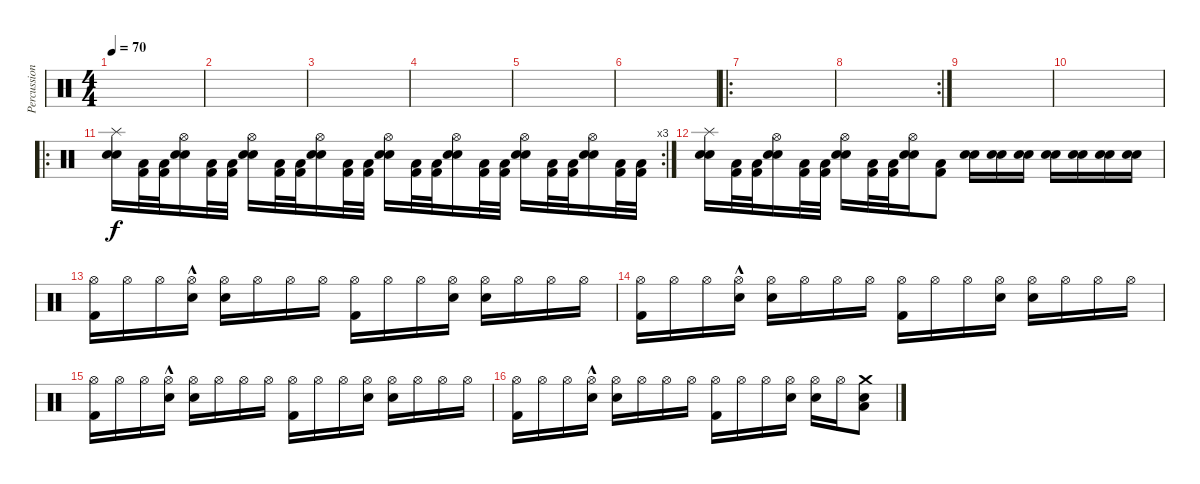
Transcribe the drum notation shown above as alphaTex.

\track ("Percussions" "Percussion") {instrument percussion}
\staff {score}
\articulation defaults
\ts (4 4)
\tempo 70
\clef neutral
\ks c
|
|
|
|
|
|
\ro
|
\rc 2
|
|
|
\ro
\rc 3
("Splash (hit)" "Electric Snare (hit)" "Snare (hit) 2").16 ("Kick (hit) 2" "Low Floor Tom (hit)").32 ("Low Floor Tom (hit)" "Kick (hit) 2").32 ("Electric Snare (hit)" "Snare (hit) 2" "Hi-Hat (open)").16 ("Kick (hit) 2" "Low Floor Tom (hit)").32 ("Kick (hit) 2" "Low Floor Tom (hit)").32 ("Electric Snare (hit)" "Snare (hit) 2" "Hi-Hat (open)").16 ("Kick (hit) 2" "Low Floor Tom (hit)").32 ("Kick (hit) 2" "Low Floor Tom (hit)").32 ("Electric Snare (hit)" "Snare (hit) 2" "Hi-Hat (open)").16 ("Kick (hit) 2" "Low Floor Tom (hit)").32 ("Kick (hit) 2" "Low Floor Tom (hit)").32 ("Electric Snare (hit)" "Snare (hit) 2" "Hi-Hat (open)").16 ("Kick (hit) 2" "Low Floor Tom (hit)").32 ("Kick (hit) 2" "Low Floor Tom (hit)").32 ("Electric Snare (hit)" "Snare (hit) 2" "Hi-Hat (open)").16 ("Kick (hit) 2" "Low Floor Tom (hit)").32 ("Kick (hit) 2" "Low Floor Tom (hit)").32 ("Electric Snare (hit)" "Snare (hit) 2" "Hi-Hat (open)").16 ("Kick (hit) 2" "Low Floor Tom (hit)").32 ("Kick (hit) 2" "Low Floor Tom (hit)").32 ("Electric Snare (hit)" "Snare (hit) 2" "Hi-Hat (open)").16 ("Kick (hit) 2" "Low Floor Tom (hit)").32 ("Kick (hit) 2" "Low Floor Tom (hit)").32 |
("Splash (hit)" "Electric Snare (hit)" "Snare (hit) 2").16 ("Kick (hit) 2" "Low Floor Tom (hit)").32 ("Low Floor Tom (hit)" "Kick (hit) 2").32 ("Electric Snare (hit)" "Snare (hit) 2" "Hi-Hat (open)").16 ("Kick (hit) 2" "Low Floor Tom (hit)").32 ("Kick (hit) 2" "Low Floor Tom (hit)").32 ("Electric Snare (hit)" "Snare (hit) 2" "Hi-Hat (open)").16 ("Kick (hit) 2" "Low Floor Tom (hit)").32 ("Kick (hit) 2" "Low Floor Tom (hit)").32 ("Electric Snare (hit)" "Snare (hit) 2" "Hi-Hat (open)").16 ("Kick (hit) 2" "Low Floor Tom (hit)").8 ("Electric Snare (hit)" "Snare (hit) 2").16 ("Electric Snare (hit)" "Snare (hit) 2").16 ("Electric Snare (hit)" "Snare (hit) 2").16 ("Electric Snare (hit)" "Snare (hit) 2").16 ("Electric Snare (hit)" "Snare (hit) 2").16 ("Electric Snare (hit)" "Snare (hit) 2").16 ("Electric Snare (hit)" "Snare (hit) 2").16 |
("Kick (hit) 2" "Hi-Hat (open)").16 "Hi-Hat (open)".16 "Hi-Hat (open)".16 ("Snare (hit) 2" "Hi-Hat (open)"{hac}).16 ("Snare (hit) 2" "Hi-Hat (open)").16 "Hi-Hat (open)".16 "Hi-Hat (open)".16 "Hi-Hat (open)".16 ("Kick (hit) 2" "Hi-Hat (open)").16 "Hi-Hat (open)".16 "Hi-Hat (open)".16 ("Snare (hit) 2" "Hi-Hat (open)").16 ("Snare (hit) 2" "Hi-Hat (open)").16 "Hi-Hat (open)".16 "Hi-Hat (open)".16 "Hi-Hat (open)".16 |
("Kick (hit) 2" "Hi-Hat (open)").16 "Hi-Hat (open)".16 "Hi-Hat (open)".16 ("Snare (hit) 2" "Hi-Hat (open)"{hac}).16 ("Snare (hit) 2" "Hi-Hat (open)").16 "Hi-Hat (open)".16 "Hi-Hat (open)".16 "Hi-Hat (open)".16 ("Kick (hit) 2" "Hi-Hat (open)").16 "Hi-Hat (open)".16 "Hi-Hat (open)".16 ("Snare (hit) 2" "Hi-Hat (open)").16 ("Snare (hit) 2" "Hi-Hat (open)").16 "Hi-Hat (open)".16 "Hi-Hat (open)".16 "Hi-Hat (open)".16 |
("Kick (hit) 2" "Hi-Hat (open)").16 "Hi-Hat (open)".16 "Hi-Hat (open)".16 ("Snare (hit) 2" "Hi-Hat (open)"{hac}).16 ("Snare (hit) 2" "Hi-Hat (open)").16 "Hi-Hat (open)".16 "Hi-Hat (open)".16 "Hi-Hat (open)".16 ("Kick (hit) 2" "Hi-Hat (open)").16 "Hi-Hat (open)".16 "Hi-Hat (open)".16 ("Snare (hit) 2" "Hi-Hat (open)").16 ("Snare (hit) 2" "Hi-Hat (open)").16 "Hi-Hat (open)".16 "Hi-Hat (open)".16 "Hi-Hat (open)".16 |
("Kick (hit) 2" "Hi-Hat (open)").16 "Hi-Hat (open)".16 "Hi-Hat (open)".16 ("Snare (hit) 2" "Hi-Hat (open)"{hac}).16 ("Snare (hit) 2" "Hi-Hat (open)").16 "Hi-Hat (open)".16 "Hi-Hat (open)".16 "Hi-Hat (open)".16 ("Kick (hit) 2" "Hi-Hat (open)").16 "Hi-Hat (open)".16 "Hi-Hat (open)".16 ("Snare (hit) 2" "Hi-Hat (open)").16 ("Snare (hit) 2" "Hi-Hat (open)").16 "Hi-Hat (open)".16 ("Crash medium (hit)" "Low Floor Tom (hit)" "Snare (hit) 2").8
